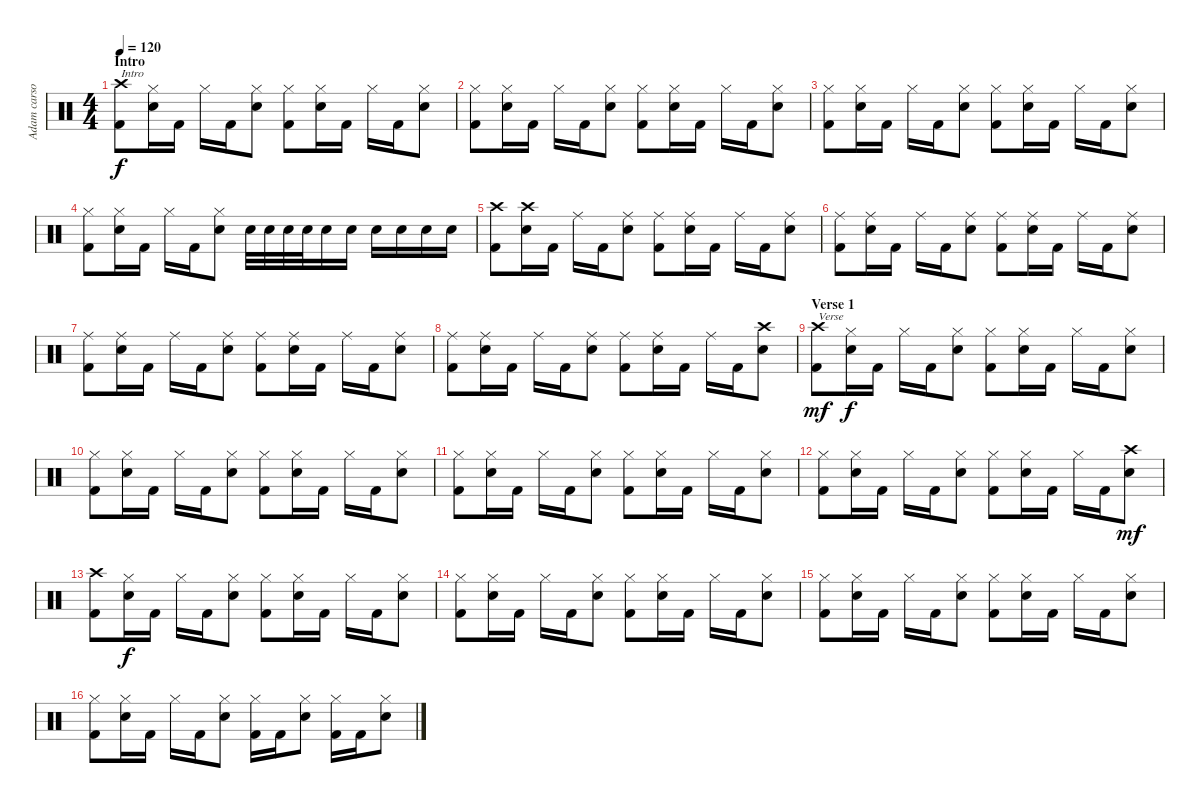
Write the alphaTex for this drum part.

\track ("Adam carson" "Adam carso") {instrument percussion}
\staff {score}
\articulation defaults
\ts (4 4)
\section ("" "Intro")
\tempo 120
\clef neutral
\ks c
("Kick (hit) 2" "Crash high (hit)").8{txt "Intro" dy f} ("Snare (hit) 2" "Hi-Hat (closed)").16 "Kick (hit) 2".16 "Hi-Hat (closed)".16 "Kick (hit) 2".16 ("Snare (hit) 2" "Hi-Hat (closed)").8 ("Kick (hit) 2" "Hi-Hat (closed)").8 ("Snare (hit) 2" "Hi-Hat (closed)").16 "Kick (hit) 2".16 "Hi-Hat (closed)".16 "Kick (hit) 2".16 ("Snare (hit) 2" "Hi-Hat (closed)").8 |
("Kick (hit) 2" "Hi-Hat (closed)").8 ("Snare (hit) 2" "Hi-Hat (closed)").16 "Kick (hit) 2".16 "Hi-Hat (closed)".16 "Kick (hit) 2".16 ("Snare (hit) 2" "Hi-Hat (closed)").8 ("Kick (hit) 2" "Hi-Hat (closed)").8 ("Snare (hit) 2" "Hi-Hat (closed)").16 "Kick (hit) 2".16 "Hi-Hat (closed)".16 "Kick (hit) 2".16 ("Snare (hit) 2" "Hi-Hat (closed)").8 |
("Kick (hit) 2" "Hi-Hat (closed)").8 ("Snare (hit) 2" "Hi-Hat (closed)").16 "Kick (hit) 2".16 "Hi-Hat (closed)".16 "Kick (hit) 2".16 ("Snare (hit) 2" "Hi-Hat (closed)").8 ("Kick (hit) 2" "Hi-Hat (closed)").8 ("Snare (hit) 2" "Hi-Hat (closed)").16 "Kick (hit) 2".16 "Hi-Hat (closed)".16 "Kick (hit) 2".16 ("Snare (hit) 2" "Hi-Hat (closed)").8 |
("Kick (hit) 2" "Hi-Hat (closed)").8 ("Snare (hit) 2" "Hi-Hat (closed)").16 "Kick (hit) 2".16 "Hi-Hat (closed)".16 "Kick (hit) 2".16 ("Snare (hit) 2" "Hi-Hat (closed)").8 "Snare (hit) 2".32 "Snare (hit) 2".32 "Snare (hit) 2".32 "Snare (hit) 2".32 "Snare (hit) 2".16 "Snare (hit) 2".16 "Snare (hit) 2".16 "Snare (hit) 2".16 "Snare (hit) 2".16 "Snare (hit) 2".16 |
("Kick (hit) 2" "Crash high (hit)").8 ("Crash high (hit)" "Snare (hit) 2").16 "Kick (hit) 2".16 "Ride (middle)".16 "Kick (hit) 2".16 ("Ride (middle)" "Snare (hit) 2").8 ("Kick (hit) 2" "Ride (middle)").8 ("Ride (middle)" "Snare (hit) 2").16 "Kick (hit) 2".16 "Ride (middle)".16 "Kick (hit) 2".16 ("Ride (middle)" "Snare (hit) 2").8 |
("Kick (hit) 2" "Ride (middle)").8 ("Ride (middle)" "Snare (hit) 2").16 "Kick (hit) 2".16 "Ride (middle)".16 "Kick (hit) 2".16 ("Ride (middle)" "Snare (hit) 2").8 ("Kick (hit) 2" "Ride (middle)").8 ("Ride (middle)" "Snare (hit) 2").16 "Kick (hit) 2".16 "Ride (middle)".16 "Kick (hit) 2".16 ("Ride (middle)" "Snare (hit) 2").8 |
("Kick (hit) 2" "Ride (middle)").8 ("Ride (middle)" "Snare (hit) 2").16 "Kick (hit) 2".16 "Ride (middle)".16 "Kick (hit) 2".16 ("Ride (middle)" "Snare (hit) 2").8 ("Kick (hit) 2" "Ride (middle)").8 ("Ride (middle)" "Snare (hit) 2").16 "Kick (hit) 2".16 "Ride (middle)".16 "Kick (hit) 2".16 ("Ride (middle)" "Snare (hit) 2").8 |
("Kick (hit) 2" "Ride (middle)").8 ("Ride (middle)" "Snare (hit) 2").16 "Kick (hit) 2".16 "Ride (middle)".16 "Kick (hit) 2".16 ("Ride (middle)" "Snare (hit) 2").8 ("Kick (hit) 2" "Ride (middle)").8 ("Ride (middle)" "Snare (hit) 2").16 "Kick (hit) 2".16 "Ride (middle)".16 "Kick (hit) 2".16 ("Crash high (hit)" "Snare (hit) 2").8 |
\section ("" "Verse 1")
("Kick (hit) 2" "Crash high (hit)").8{txt "Verse" dy mf} ("Snare (hit) 2" "Hi-Hat (closed)").16{dy f} "Kick (hit) 2".16 "Hi-Hat (closed)".16 "Kick (hit) 2".16 ("Snare (hit) 2" "Hi-Hat (closed)").8 ("Kick (hit) 2" "Hi-Hat (closed)").8 ("Snare (hit) 2" "Hi-Hat (closed)").16 "Kick (hit) 2".16 "Hi-Hat (closed)".16 "Kick (hit) 2".16 ("Snare (hit) 2" "Hi-Hat (closed)").8 |
("Kick (hit) 2" "Hi-Hat (closed)").8 ("Snare (hit) 2" "Hi-Hat (closed)").16 "Kick (hit) 2".16 "Hi-Hat (closed)".16 "Kick (hit) 2".16 ("Snare (hit) 2" "Hi-Hat (closed)").8 ("Kick (hit) 2" "Hi-Hat (closed)").8 ("Snare (hit) 2" "Hi-Hat (closed)").16 "Kick (hit) 2".16 "Hi-Hat (closed)".16 "Kick (hit) 2".16 ("Snare (hit) 2" "Hi-Hat (closed)").8 |
("Kick (hit) 2" "Hi-Hat (closed)").8 ("Snare (hit) 2" "Hi-Hat (closed)").16 "Kick (hit) 2".16 "Hi-Hat (closed)".16 "Kick (hit) 2".16 ("Snare (hit) 2" "Hi-Hat (closed)").8 ("Kick (hit) 2" "Hi-Hat (closed)").8 ("Snare (hit) 2" "Hi-Hat (closed)").16 "Kick (hit) 2".16 "Hi-Hat (closed)".16 "Kick (hit) 2".16 ("Snare (hit) 2" "Hi-Hat (closed)").8 |
("Kick (hit) 2" "Hi-Hat (closed)").8 ("Snare (hit) 2" "Hi-Hat (closed)").16 "Kick (hit) 2".16 "Hi-Hat (closed)".16 "Kick (hit) 2".16 ("Snare (hit) 2" "Hi-Hat (closed)").8 ("Kick (hit) 2" "Hi-Hat (closed)").8 ("Snare (hit) 2" "Hi-Hat (closed)").16 "Kick (hit) 2".16 "Hi-Hat (closed)".16 "Kick (hit) 2".16 ("Crash high (hit)" "Snare (hit) 2").8{dy mf} |
("Kick (hit) 2" "Crash high (hit)").8 ("Snare (hit) 2" "Hi-Hat (closed)").16{dy f} "Kick (hit) 2".16 "Hi-Hat (closed)".16 "Kick (hit) 2".16 ("Snare (hit) 2" "Hi-Hat (closed)").8 ("Kick (hit) 2" "Hi-Hat (closed)").8 ("Snare (hit) 2" "Hi-Hat (closed)").16 "Kick (hit) 2".16 "Hi-Hat (closed)".16 "Kick (hit) 2".16 ("Snare (hit) 2" "Hi-Hat (closed)").8 |
("Kick (hit) 2" "Hi-Hat (closed)").8 ("Snare (hit) 2" "Hi-Hat (closed)").16 "Kick (hit) 2".16 "Hi-Hat (closed)".16 "Kick (hit) 2".16 ("Snare (hit) 2" "Hi-Hat (closed)").8 ("Kick (hit) 2" "Hi-Hat (closed)").8 ("Snare (hit) 2" "Hi-Hat (closed)").16 "Kick (hit) 2".16 "Hi-Hat (closed)".16 "Kick (hit) 2".16 ("Snare (hit) 2" "Hi-Hat (closed)").8 |
("Kick (hit) 2" "Hi-Hat (closed)").8 ("Snare (hit) 2" "Hi-Hat (closed)").16 "Kick (hit) 2".16 "Hi-Hat (closed)".16 "Kick (hit) 2".16 ("Snare (hit) 2" "Hi-Hat (closed)").8 ("Kick (hit) 2" "Hi-Hat (closed)").8 ("Snare (hit) 2" "Hi-Hat (closed)").16 "Kick (hit) 2".16 "Hi-Hat (closed)".16 "Kick (hit) 2".16 ("Snare (hit) 2" "Hi-Hat (closed)").8 |
("Kick (hit) 2" "Hi-Hat (closed)").8 ("Snare (hit) 2" "Hi-Hat (closed)").16 "Kick (hit) 2".16 "Hi-Hat (closed)".16 "Kick (hit) 2".16 ("Snare (hit) 2" "Hi-Hat (closed)").8 ("Kick (hit) 2" "Hi-Hat (closed)").16 "Kick (hit) 2".16 ("Snare (hit) 2" "Hi-Hat (closed)").8 ("Kick (hit) 2" "Hi-Hat (closed)").16 "Kick (hit) 2".16 ("Snare (hit) 2" "Hi-Hat (closed)").8
